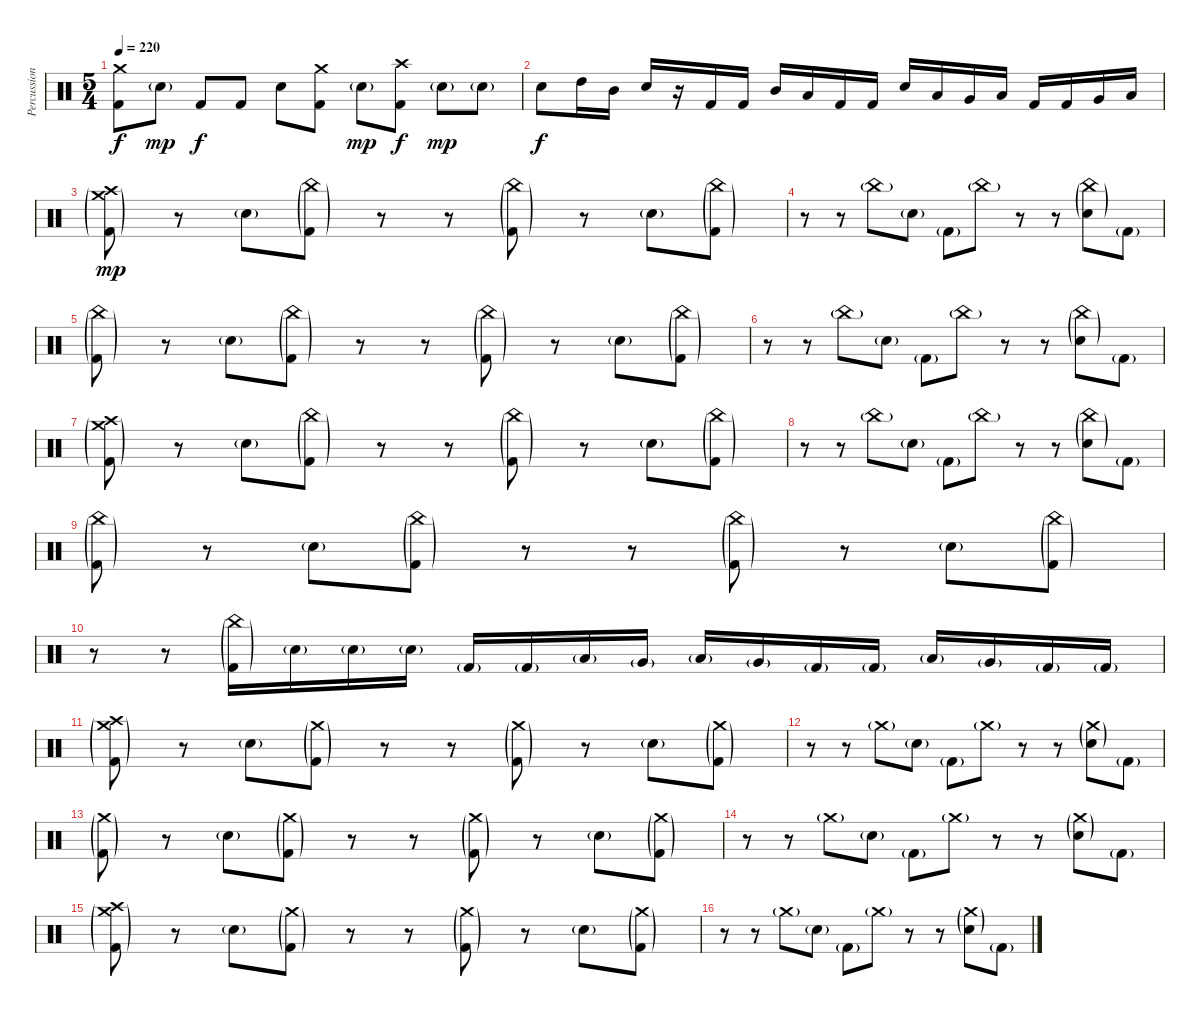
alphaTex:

\track ("Percussion" "Percussion") {instrument percussion}
\staff {score}
\articulation defaults
\ts (5 4)
\tempo 220
\clef neutral
\ks c
("Crash medium (hit)" "Kick (hit) 2").8{dy f} "Electric Snare (hit)"{g}.8{dy mp} "Kick (hit) 2".8{dy f} "Kick (hit) 2".8 "Electric Snare (hit)".8 ("Crash medium (hit)" "Kick (hit) 2").8 "Electric Snare (hit)"{g}.8{dy mp} ("Crash high (hit)" "Kick (hit) 2").8{dy f} "Electric Snare (hit)"{g}.8{dy mp} "Electric Snare (hit)"{g}.8 |
"Electric Snare (hit)".8{dy f} "High Tom (hit)".16 "Mid Tom (hit)".16 "Electric Snare (hit)".16 r.16 "Kick (hit) 2".16 "Kick (hit) 2".16 "Mid Tom (hit)".16 "Low Tom (hit)".16 "Kick (hit) 2".16 "Kick (hit) 2".16 "Electric Snare (hit)".16 "Low Tom (hit)".16 "Very Low Tom (hit)".16 "Low Floor Tom (hit)".16 "Kick (hit) 2".16 "Kick (hit) 2".16 "Very Low Tom (hit)".16 "Low Floor Tom (hit)".16 |
("Crash medium (hit)"{g} "Crash high (hit)"{g} "Kick (hit) 2"{g}).8{dy mp} r.8 "Electric Snare (hit)"{g}.8 ("China (hit)"{g} "Kick (hit) 2"{g}).8 r.8 r.8 ("China (hit)"{g} "Kick (hit) 2"{g}).8 r.8 "Electric Snare (hit)"{g}.8 ("China (hit)"{g} "Kick (hit) 2"{g}).8 |
r.8 r.8 "China (hit)"{g}.8 "Electric Snare (hit)"{g}.8 "Kick (hit) 2"{g}.8 "China (hit)"{g}.8 r.8 r.8 ("China (hit)"{g} "Electric Snare (hit)"{g}).8 "Kick (hit) 2"{g}.8 |
("China (hit)"{g} "Kick (hit) 2"{g}).8 r.8 "Electric Snare (hit)"{g}.8 ("China (hit)"{g} "Kick (hit) 2"{g}).8 r.8 r.8 ("China (hit)"{g} "Kick (hit) 2"{g}).8 r.8 "Electric Snare (hit)"{g}.8 ("China (hit)"{g} "Kick (hit) 2"{g}).8 |
r.8 r.8 "China (hit)"{g}.8 "Electric Snare (hit)"{g}.8 "Kick (hit) 2"{g}.8 "China (hit)"{g}.8 r.8 r.8 ("China (hit)"{g} "Electric Snare (hit)"{g}).8 "Kick (hit) 2"{g}.8 |
("Crash medium (hit)"{g} "Crash high (hit)"{g} "Kick (hit) 2"{g}).8 r.8 "Electric Snare (hit)"{g}.8 ("China (hit)"{g} "Kick (hit) 2"{g}).8 r.8 r.8 ("China (hit)"{g} "Kick (hit) 2"{g}).8 r.8 "Electric Snare (hit)"{g}.8 ("China (hit)"{g} "Kick (hit) 2"{g}).8 |
r.8 r.8 "China (hit)"{g}.8 "Electric Snare (hit)"{g}.8 "Kick (hit) 2"{g}.8 "China (hit)"{g}.8 r.8 r.8 ("China (hit)"{g} "Electric Snare (hit)"{g}).8 "Kick (hit) 2"{g}.8 |
("China (hit)"{g} "Kick (hit) 2"{g}).8 r.8 "Electric Snare (hit)"{g}.8 ("China (hit)"{g} "Kick (hit) 2"{g}).8 r.8 r.8 ("China (hit)"{g} "Kick (hit) 2"{g}).8 r.8 "Electric Snare (hit)"{g}.8 ("China (hit)"{g} "Kick (hit) 2"{g}).8 |
r.8 r.8 ("China (hit)"{g} "Kick (hit) 2"{g}).16 "Electric Snare (hit)"{g}.16 "Electric Snare (hit)"{g}.16 "Electric Snare (hit)"{g}.16 "Kick (hit) 2"{g}.16 "Kick (hit) 2"{g}.16 "Low Floor Tom (hit)"{g}.16 "Very Low Tom (hit)"{g}.16 "Low Floor Tom (hit)"{g}.16 "Very Low Tom (hit)"{g}.16 "Kick (hit) 2"{g}.16 "Kick (hit) 2"{g}.16 "Low Floor Tom (hit)"{g}.16 "Very Low Tom (hit)"{g}.16 "Kick (hit) 2"{g}.16 "Kick (hit) 2"{g}.16 |
("Crash medium (hit)"{g} "Crash high (hit)"{g} "Kick (hit) 2"{g}).8 r.8 "Electric Snare (hit)"{g}.8 ("Crash medium (hit)"{g} "Kick (hit) 2"{g}).8 r.8 r.8 ("Crash medium (hit)"{g} "Kick (hit) 2"{g}).8 r.8 "Electric Snare (hit)"{g}.8 ("Crash medium (hit)"{g} "Kick (hit) 2"{g}).8 |
r.8 r.8 "Crash medium (hit)"{g}.8 "Electric Snare (hit)"{g}.8 "Kick (hit) 2"{g}.8 "Crash medium (hit)"{g}.8 r.8 r.8 ("Crash medium (hit)"{g} "Electric Snare (hit)"{g}).8 "Kick (hit) 2"{g}.8 |
("Crash medium (hit)"{g} "Kick (hit) 2"{g}).8 r.8 "Electric Snare (hit)"{g}.8 ("Crash medium (hit)"{g} "Kick (hit) 2"{g}).8 r.8 r.8 ("Crash medium (hit)"{g} "Kick (hit) 2"{g}).8 r.8 "Electric Snare (hit)"{g}.8 ("Crash medium (hit)"{g} "Kick (hit) 2"{g}).8 |
r.8 r.8 "Crash medium (hit)"{g}.8 "Electric Snare (hit)"{g}.8 "Kick (hit) 2"{g}.8 "Crash medium (hit)"{g}.8 r.8 r.8 ("Crash medium (hit)"{g} "Electric Snare (hit)"{g}).8 "Kick (hit) 2"{g}.8 |
("Crash medium (hit)"{g} "Crash high (hit)"{g} "Kick (hit) 2"{g}).8 r.8 "Electric Snare (hit)"{g}.8 ("Crash medium (hit)"{g} "Kick (hit) 2"{g}).8 r.8 r.8 ("Crash medium (hit)"{g} "Kick (hit) 2"{g}).8 r.8 "Electric Snare (hit)"{g}.8 ("Crash medium (hit)"{g} "Kick (hit) 2"{g}).8 |
r.8 r.8 "Crash medium (hit)"{g}.8 "Electric Snare (hit)"{g}.8 "Kick (hit) 2"{g}.8 "Crash medium (hit)"{g}.8 r.8 r.8 ("Crash medium (hit)"{g} "Electric Snare (hit)"{g}).8 "Kick (hit) 2"{g}.8
